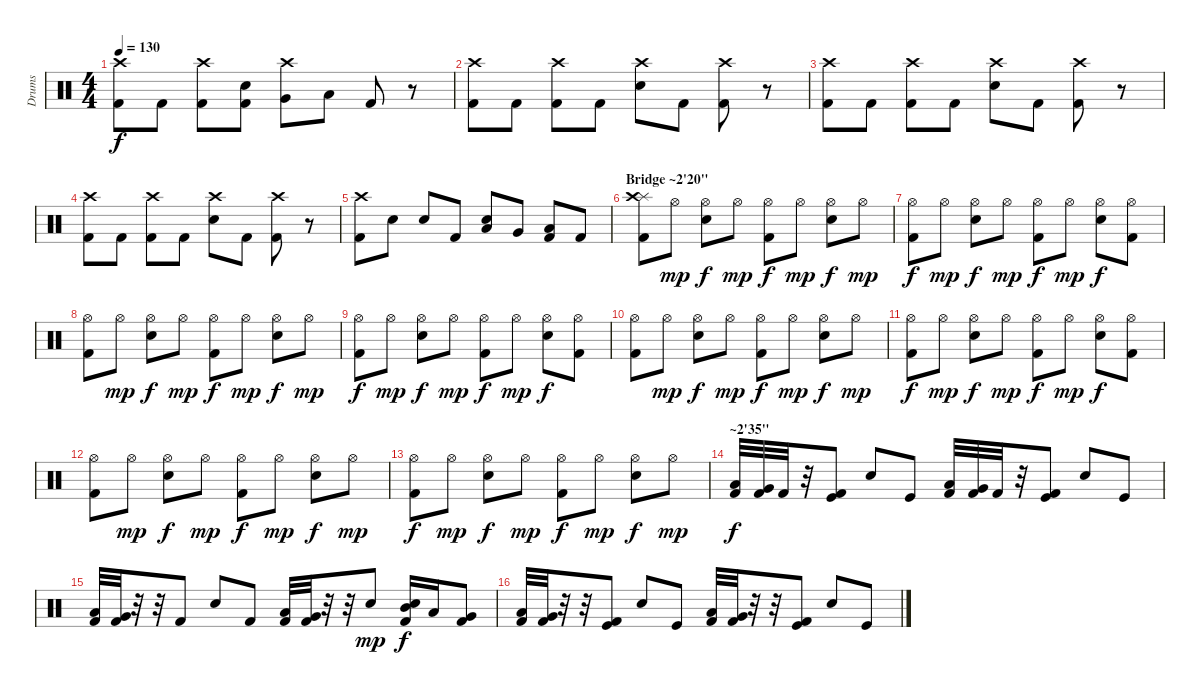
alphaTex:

\track ("Drums" "Drums") {instrument percussion}
\staff {score}
\articulation defaults
\ts (4 4)
\tempo 130
\clef neutral
\ks c
("Crash high (hit)" "Kick (hit) 2").8{dy f} "Kick (hit) 2".8 ("Crash high (hit)" "Kick (hit) 2").8 ("Electric Snare (hit)" "Kick (hit) 2").8 ("Very Low Tom (hit)" "Crash high (hit)").8 "Low Floor Tom (hit)".8 "Kick (hit) 2".8 r.8 |
("Crash high (hit)" "Kick (hit) 2").8 "Kick (hit) 2".8 ("Crash high (hit)" "Kick (hit) 2").8 "Kick (hit) 2".8 ("Crash high (hit)" "Electric Snare (hit)").8 "Kick (hit) 2".8 ("Crash high (hit)" "Kick (hit) 2").8 r.8 |
("Crash high (hit)" "Kick (hit) 2").8 "Kick (hit) 2".8 ("Crash high (hit)" "Kick (hit) 2").8 "Kick (hit) 2".8 ("Crash high (hit)" "Electric Snare (hit)").8 "Kick (hit) 2".8 ("Crash high (hit)" "Kick (hit) 2").8 r.8 |
("Crash high (hit)" "Kick (hit) 2").8 "Kick (hit) 2".8 ("Crash high (hit)" "Kick (hit) 2").8 "Kick (hit) 2".8 ("Crash high (hit)" "Electric Snare (hit)").8 "Kick (hit) 2".8 ("Crash high (hit)" "Kick (hit) 2").8 r.8 |
("Crash high (hit)" "Kick (hit) 2").8 "Electric Snare (hit)".8 "Electric Snare (hit)".8 "Kick (hit) 2".8 ("Low Tom (hit)" "Electric Snare (hit)").8 "Very Low Tom (hit)".8 ("Low Floor Tom (hit)" "Kick (hit) 2").8 "Kick (hit) 2".8 |
\section ("" "Bridge ~2'20\"")
("Splash (hit)" "Kick (hit) 2" "Crash high (hit)").8 "Hi-Hat (open)".8{dy mp} ("Electric Snare (hit)" "Hi-Hat (open)").8{dy f} "Hi-Hat (open)".8{dy mp} ("Kick (hit) 2" "Hi-Hat (open)").8{dy f} "Hi-Hat (open)".8{dy mp} ("Electric Snare (hit)" "Hi-Hat (open)").8{dy f} "Hi-Hat (open)".8{dy mp} |
("Hi-Hat (open)" "Kick (hit) 2").8{dy f} "Hi-Hat (open)".8{dy mp} ("Electric Snare (hit)" "Hi-Hat (open)").8{dy f} "Hi-Hat (open)".8{dy mp} ("Kick (hit) 2" "Hi-Hat (open)").8{dy f} "Hi-Hat (open)".8{dy mp} ("Electric Snare (hit)" "Hi-Hat (open)").8{dy f} ("Hi-Hat (open)" "Kick (hit) 2").8 |
("Hi-Hat (open)" "Kick (hit) 2").8 "Hi-Hat (open)".8{dy mp} ("Electric Snare (hit)" "Hi-Hat (open)").8{dy f} "Hi-Hat (open)".8{dy mp} ("Hi-Hat (open)" "Kick (hit) 2").8{dy f} "Hi-Hat (open)".8{dy mp} ("Electric Snare (hit)" "Hi-Hat (open)").8{dy f} "Hi-Hat (open)".8{dy mp} |
("Hi-Hat (open)" "Kick (hit) 2").8{dy f} "Hi-Hat (open)".8{dy mp} ("Electric Snare (hit)" "Hi-Hat (open)").8{dy f} "Hi-Hat (open)".8{dy mp} ("Kick (hit) 2" "Hi-Hat (open)").8{dy f} "Hi-Hat (open)".8{dy mp} ("Electric Snare (hit)" "Hi-Hat (open)").8{dy f} ("Hi-Hat (open)" "Kick (hit) 2").8 |
("Hi-Hat (open)" "Kick (hit) 2").8 "Hi-Hat (open)".8{dy mp} ("Electric Snare (hit)" "Hi-Hat (open)").8{dy f} "Hi-Hat (open)".8{dy mp} ("Hi-Hat (open)" "Kick (hit) 2").8{dy f} "Hi-Hat (open)".8{dy mp} ("Electric Snare (hit)" "Hi-Hat (open)").8{dy f} "Hi-Hat (open)".8{dy mp} |
("Hi-Hat (open)" "Kick (hit) 2").8{dy f} "Hi-Hat (open)".8{dy mp} ("Electric Snare (hit)" "Hi-Hat (open)").8{dy f} "Hi-Hat (open)".8{dy mp} ("Hi-Hat (open)" "Kick (hit) 2").8{dy f} "Hi-Hat (open)".8{dy mp} ("Electric Snare (hit)" "Hi-Hat (open)").8{dy f} ("Hi-Hat (open)" "Kick (hit) 2").8 |
("Hi-Hat (open)" "Kick (hit) 2").8 "Hi-Hat (open)".8{dy mp} ("Electric Snare (hit)" "Hi-Hat (open)").8{dy f} "Hi-Hat (open)".8{dy mp} ("Kick (hit) 2" "Hi-Hat (open)").8{dy f} "Hi-Hat (open)".8{dy mp} ("Electric Snare (hit)" "Hi-Hat (open)").8{dy f} "Hi-Hat (open)".8{dy mp} |
("Hi-Hat (open)" "Kick (hit) 2").8{dy f} "Hi-Hat (open)".8{dy mp} ("Electric Snare (hit)" "Hi-Hat (open)").8{dy f} "Hi-Hat (open)".8{dy mp} ("Kick (hit) 2" "Hi-Hat (open)").8{dy f} "Hi-Hat (open)".8{dy mp} ("Electric Snare (hit)" "Hi-Hat (open)").8{dy f} "Hi-Hat (open)".8{dy mp} |
\section ("" "~2'35\"")
("Low Tom (hit)" "Kick (hit) 2").32{dy f} ("Very Low Tom (hit)" "Kick (hit) 2").32 "Kick (hit) 2".32 r.32 ("Kick (hit)" "Kick (hit) 2").8 "Electric Snare (hit)".8 "Kick (hit)".8 ("Low Tom (hit)" "Kick (hit) 2").32 ("Very Low Tom (hit)" "Kick (hit) 2").32 "Kick (hit) 2".32 r.32 ("Kick (hit)" "Kick (hit) 2").8 "Electric Snare (hit)".8 "Kick (hit)".8 |
("Low Tom (hit)" "Kick (hit) 2").32 ("Very Low Tom (hit)" "Kick (hit) 2").32 r.32 r.32 "Kick (hit) 2".8 "Electric Snare (hit)".8 "Kick (hit) 2".8 ("Low Tom (hit)" "Kick (hit) 2").32 ("Very Low Tom (hit)" "Kick (hit) 2").32 r.32 r.32 "Electric Snare (hit)".8{dy mp} ("Mid Tom (hit)" "Electric Snare (hit)" "Kick (hit) 2").16{dy f} "Low Tom (hit)".16 ("Kick (hit) 2" "Very Low Tom (hit)").8 |
("Low Tom (hit)" "Kick (hit) 2").32 ("Very Low Tom (hit)" "Kick (hit) 2").32 r.32 r.32 ("Kick (hit)" "Kick (hit) 2").8 "Electric Snare (hit)".8 "Kick (hit)".8 ("Low Tom (hit)" "Kick (hit) 2").32 ("Very Low Tom (hit)" "Kick (hit) 2").32 r.32 r.32 ("Kick (hit)" "Kick (hit) 2").8 "Electric Snare (hit)".8 "Kick (hit)".8
